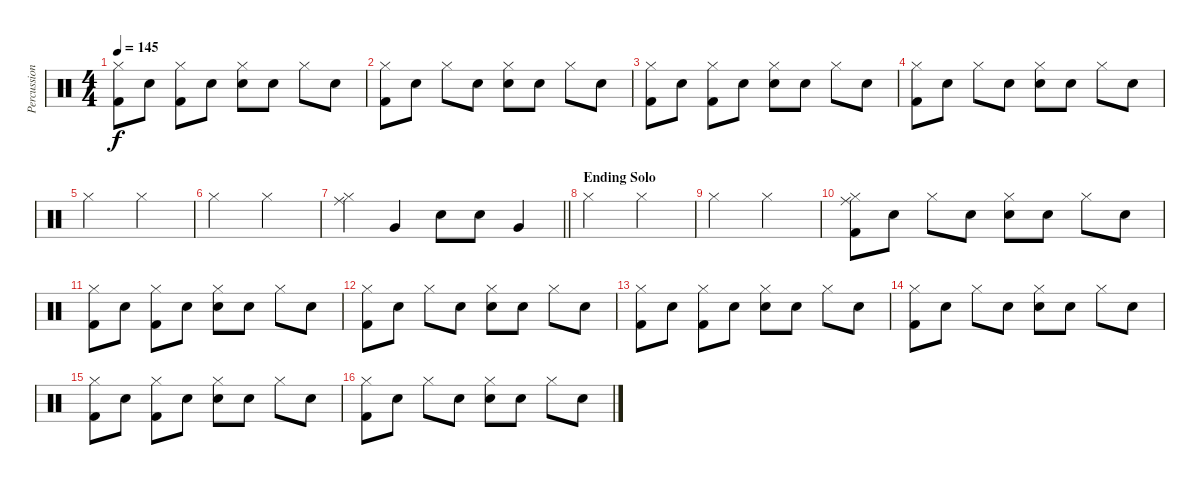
\track ("Percussion" "Percussion") {instrument percussion}
\staff {score}
\articulation defaults
\ts (4 4)
\tempo 145
\clef neutral
\ks c
("Hi-Hat (closed)" "Kick (hit) 2").8{dy f} "Snare (hit)"{x}.8 ("Hi-Hat (closed)" "Kick (hit) 2").8 "Snare (hit)"{x}.8 ("Hi-Hat (closed)" "Electric Snare (hit)").8 "Snare (hit)"{x}.8 "Hi-Hat (closed)".8 "Snare (hit)"{x}.8 |
("Hi-Hat (closed)" "Kick (hit) 2").8 "Snare (hit)"{x}.8 "Hi-Hat (closed)".8 "Snare (hit)"{x}.8 ("Hi-Hat (closed)" "Electric Snare (hit)").8 "Snare (hit)"{x}.8 "Hi-Hat (closed)".8 "Snare (hit)"{x}.8 |
("Hi-Hat (closed)" "Kick (hit) 2").8 "Snare (hit)"{x}.8 ("Hi-Hat (closed)" "Kick (hit) 2").8 "Snare (hit)"{x}.8 ("Hi-Hat (closed)" "Electric Snare (hit)").8 "Snare (hit)"{x}.8 "Hi-Hat (closed)".8 "Snare (hit)"{x}.8 |
("Hi-Hat (closed)" "Kick (hit) 2").8 "Snare (hit)"{x}.8 "Hi-Hat (closed)".8 "Snare (hit)"{x}.8 ("Hi-Hat (closed)" "Electric Snare (hit)").8 "Snare (hit)"{x}.8 "Hi-Hat (closed)".8 "Snare (hit)"{x}.8 |
"Hi-Hat (closed)".2 "Hi-Hat (closed)".2 |
"Hi-Hat (closed)".2 "Hi-Hat (closed)".2 |
\barLineRight lightlight
("Hi-Hat (closed)" "Ride (middle)").4 "Very Low Tom (hit)".4 "Electric Snare (hit)".8 "Electric Snare (hit)".8 "Very Low Tom (hit)".4 |
\section ("" "Ending Solo")
"Hi-Hat (closed)".2 "Hi-Hat (closed)".2 |
"Hi-Hat (closed)".2 "Hi-Hat (closed)".2 |
("Hi-Hat (closed)" "Ride (middle)" "Kick (hit) 2").8 "Snare (hit)"{x}.8 "Hi-Hat (closed)".8 "Snare (hit)"{x}.8 ("Hi-Hat (closed)" "Electric Snare (hit)").8 "Snare (hit)"{x}.8 "Hi-Hat (closed)".8 "Snare (hit)"{x}.8 |
("Hi-Hat (closed)" "Kick (hit) 2").8 "Snare (hit)"{x}.8 ("Hi-Hat (closed)" "Kick (hit) 2").8 "Snare (hit)"{x}.8 ("Hi-Hat (closed)" "Electric Snare (hit)").8 "Snare (hit)"{x}.8 "Hi-Hat (closed)".8 "Snare (hit)"{x}.8 |
("Hi-Hat (closed)" "Kick (hit) 2").8 "Snare (hit)"{x}.8 "Hi-Hat (closed)".8 "Snare (hit)"{x}.8 ("Hi-Hat (closed)" "Electric Snare (hit)").8 "Snare (hit)"{x}.8 "Hi-Hat (closed)".8 "Snare (hit)"{x}.8 |
("Hi-Hat (closed)" "Kick (hit) 2").8 "Snare (hit)"{x}.8 ("Hi-Hat (closed)" "Kick (hit) 2").8 "Snare (hit)"{x}.8 ("Hi-Hat (closed)" "Electric Snare (hit)").8 "Snare (hit)"{x}.8 "Hi-Hat (closed)".8 "Snare (hit)"{x}.8 |
("Hi-Hat (closed)" "Kick (hit) 2").8 "Snare (hit)"{x}.8 "Hi-Hat (closed)".8 "Snare (hit)"{x}.8 ("Hi-Hat (closed)" "Electric Snare (hit)").8 "Snare (hit)"{x}.8 "Hi-Hat (closed)".8 "Snare (hit)"{x}.8 |
("Hi-Hat (closed)" "Kick (hit) 2").8 "Snare (hit)"{x}.8 ("Hi-Hat (closed)" "Kick (hit) 2").8 "Snare (hit)"{x}.8 ("Hi-Hat (closed)" "Electric Snare (hit)").8 "Snare (hit)"{x}.8 "Hi-Hat (closed)".8 "Snare (hit)"{x}.8 |
("Hi-Hat (closed)" "Kick (hit) 2").8 "Snare (hit)"{x}.8 "Hi-Hat (closed)".8 "Snare (hit)"{x}.8 ("Hi-Hat (closed)" "Electric Snare (hit)").8 "Snare (hit)"{x}.8 "Hi-Hat (closed)".8 "Snare (hit)"{x}.8
